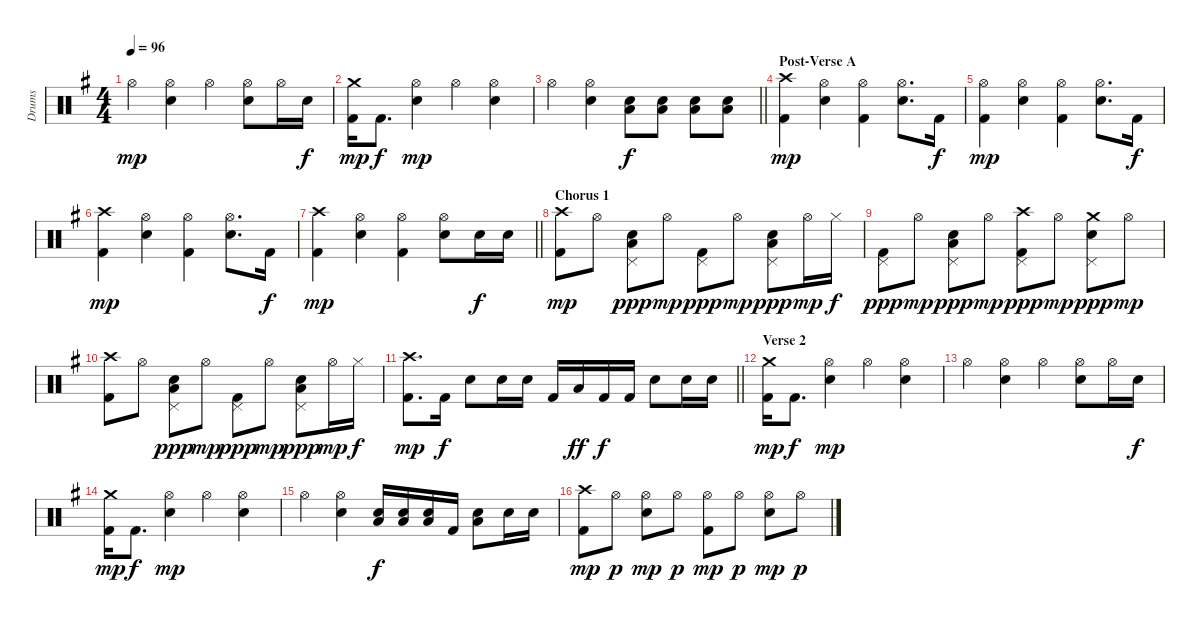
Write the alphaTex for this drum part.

\track ("Drums" "Drums") {instrument percussion}
\staff {score}
\articulation defaults
\ts (4 4)
\tempo 96
\clef neutral
\ks g "Hi-Hat (open)".4{dy mp}
("Hi-Hat (open)" "Electric Snare (hit)").4 "Hi-Hat (open)".4 ("Hi-Hat (open)" "Electric Snare (hit)").8 "Hi-Hat (open)".16 "Electric Snare (hit)".16{dy f} |
("Kick (hit) 2" "Crash medium (hit)").16{dy mp} "Kick (hit) 2".8{d dy f} ("Hi-Hat (open)" "Electric Snare (hit)").4{dy mp} "Hi-Hat (open)".4 ("Hi-Hat (open)" "Electric Snare (hit)").4 |
\barLineRight lightlight "Hi-Hat (open)".4
("Hi-Hat (open)" "Electric Snare (hit)").4 ("Electric Snare (hit)" "Low Tom (hit)").8{dy f} ("Electric Snare (hit)" "Low Tom (hit)").8 ("Electric Snare (hit)" "Low Tom (hit)").8 ("Electric Snare (hit)" "Low Tom (hit)").8 |
\section ("" "Post-Verse A")
("Kick (hit) 2" "Crash high (hit)").4{dy mp} ("Electric Snare (hit)" "Hi-Hat (open)").4 ("Kick (hit) 2" "Hi-Hat (open)").4 ("Electric Snare (hit)" "Hi-Hat (open)").8{d} "Kick (hit) 2".16{dy f} |
("Kick (hit) 2" "Hi-Hat (open)").4{dy mp} ("Electric Snare (hit)" "Hi-Hat (open)").4 ("Kick (hit) 2" "Hi-Hat (open)").4 ("Electric Snare (hit)" "Hi-Hat (open)").8{d} "Kick (hit) 2".16{dy f} |
("Kick (hit) 2" "Crash high (hit)").4{dy mp} ("Electric Snare (hit)" "Hi-Hat (open)").4 ("Kick (hit) 2" "Hi-Hat (open)").4 ("Electric Snare (hit)" "Hi-Hat (open)").8{d} "Kick (hit) 2".16{dy f} |
\barLineRight lightlight
("Kick (hit) 2" "Crash high (hit)").4{dy mp} ("Electric Snare (hit)" "Hi-Hat (open)").4 ("Kick (hit) 2" "Hi-Hat (open)").4 ("Electric Snare (hit)" "Hi-Hat (open)").8 "Electric Snare (hit)".16{dy f} "Electric Snare (hit)".16 |
\section ("" "Chorus 1")
("Kick (hit) 2" "Crash high (hit)").8{dy mp} "Hi-Hat (open)".8 ("Electric Snare (hit)" "Pedal Hi-Hat (hit)" "Low Tom (hit)").8{dy ppp} "Hi-Hat (open)".8{dy mp} ("Kick (hit) 2" "Pedal Hi-Hat (hit)").8{dy ppp} "Hi-Hat (open)".8{dy mp} ("Electric Snare (hit)" "Pedal Hi-Hat (hit)" "Low Tom (hit)").8{dy ppp} "Hi-Hat (open)".16{dy mp} "Hi-Hat (closed)".16{dy f} |
("Kick (hit) 2" "Pedal Hi-Hat (hit)").8{dy ppp} "Hi-Hat (open)".8{dy mp} ("Electric Snare (hit)" "Pedal Hi-Hat (hit)" "Low Tom (hit)").8{dy ppp} "Hi-Hat (open)".8{dy mp} ("Kick (hit) 2" "Crash high (hit)" "Pedal Hi-Hat (hit)").8{dy ppp} "Hi-Hat (open)".8{dy mp} ("Electric Snare (hit)" "Crash medium (hit)" "Pedal Hi-Hat (hit)").8{dy ppp} "Hi-Hat (open)".8{dy mp} |
("Kick (hit) 2" "Crash high (hit)").8 "Hi-Hat (open)".8 ("Electric Snare (hit)" "Pedal Hi-Hat (hit)" "Low Tom (hit)").8{dy ppp} "Hi-Hat (open)".8{dy mp} ("Kick (hit) 2" "Pedal Hi-Hat (hit)").8{dy ppp} "Hi-Hat (open)".8{dy mp} ("Electric Snare (hit)" "Pedal Hi-Hat (hit)" "Low Tom (hit)").8{dy ppp} "Hi-Hat (open)".16{dy mp} "Hi-Hat (closed)".16{dy f} |
\barLineRight lightlight
("Kick (hit) 2" "Crash high (hit)").8{d dy mp} "Kick (hit) 2".16{dy f} "Electric Snare (hit)".8 "Electric Snare (hit)".16 "Electric Snare (hit)".16 "Kick (hit) 2".16 "Low Tom (hit)".16{dy ff} "Kick (hit) 2".16{dy f} "Kick (hit) 2".16 "Electric Snare (hit)".8 "Electric Snare (hit)".16 "Electric Snare (hit)".16 |
\section ("" "Verse 2")
("Kick (hit) 2" "Crash medium (hit)").16{dy mp} "Kick (hit) 2".8{d dy f} ("Hi-Hat (open)" "Electric Snare (hit)").4{dy mp} "Hi-Hat (open)".4 ("Hi-Hat (open)" "Electric Snare (hit)").4 |
"Hi-Hat (open)".4 ("Hi-Hat (open)" "Electric Snare (hit)").4 "Hi-Hat (open)".4 ("Hi-Hat (open)" "Electric Snare (hit)").8 "Hi-Hat (open)".16 "Electric Snare (hit)".16{dy f} |
("Kick (hit) 2" "Crash medium (hit)").16{dy mp} "Kick (hit) 2".8{d dy f} ("Hi-Hat (open)" "Electric Snare (hit)").4{dy mp} "Hi-Hat (open)".4 ("Hi-Hat (open)" "Electric Snare (hit)").4 |
"Hi-Hat (open)".4 ("Hi-Hat (open)" "Electric Snare (hit)").4 ("Electric Snare (hit)" "Low Tom (hit)").16{dy f} ("Electric Snare (hit)" "Low Tom (hit)").16 ("Electric Snare (hit)" "Low Tom (hit)").16 "Kick (hit) 2".16 ("Electric Snare (hit)" "Low Tom (hit)").8 "Electric Snare (hit)".16 "Electric Snare (hit)".16 |
("Crash high (hit)" "Kick (hit) 2").8{dy mp} "Hi-Hat (open)".8{dy p} ("Hi-Hat (open)" "Electric Snare (hit)").8{dy mp} "Hi-Hat (open)".8{dy p} ("Hi-Hat (open)" "Kick (hit) 2").8{dy mp} "Hi-Hat (open)".8{dy p} ("Hi-Hat (open)" "Electric Snare (hit)").8{dy mp} "Hi-Hat (open)".8{dy p}
